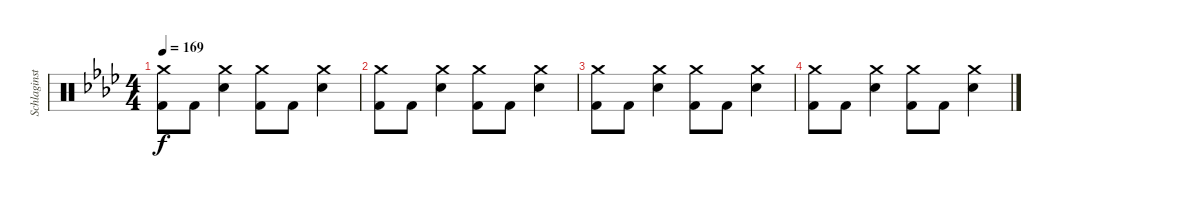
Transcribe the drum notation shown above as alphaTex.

\track ("Schlaginstrumente - Auswahl" "Schlaginst") {instrument percussion}
\staff {score}
\articulation defaults
\ts (4 4)
\tempo 169
\clef neutral
\ks fminor
("Crash medium (hit)" "Kick (hit) 2").8{dy f} "Kick (hit) 2".8 ("Crash medium (hit)" "Electric Snare (hit)").4 ("Crash medium (hit)" "Kick (hit) 2").8 "Kick (hit) 2".8 ("Crash medium (hit)" "Electric Snare (hit)").4 |
("Crash medium (hit)" "Kick (hit) 2").8 "Kick (hit) 2".8 ("Crash medium (hit)" "Electric Snare (hit)").4 ("Crash medium (hit)" "Kick (hit) 2").8 "Kick (hit) 2".8 ("Crash medium (hit)" "Electric Snare (hit)").4 |
("Crash medium (hit)" "Kick (hit) 2").8 "Kick (hit) 2".8 ("Crash medium (hit)" "Electric Snare (hit)").4 ("Crash medium (hit)" "Kick (hit) 2").8 "Kick (hit) 2".8 ("Crash medium (hit)" "Electric Snare (hit)").4 |
("Crash medium (hit)" "Kick (hit) 2").8 "Kick (hit) 2".8 ("Crash medium (hit)" "Electric Snare (hit)").4 ("Crash medium (hit)" "Kick (hit) 2").8 "Kick (hit) 2".8 ("Crash medium (hit)" "Electric Snare (hit)").4
